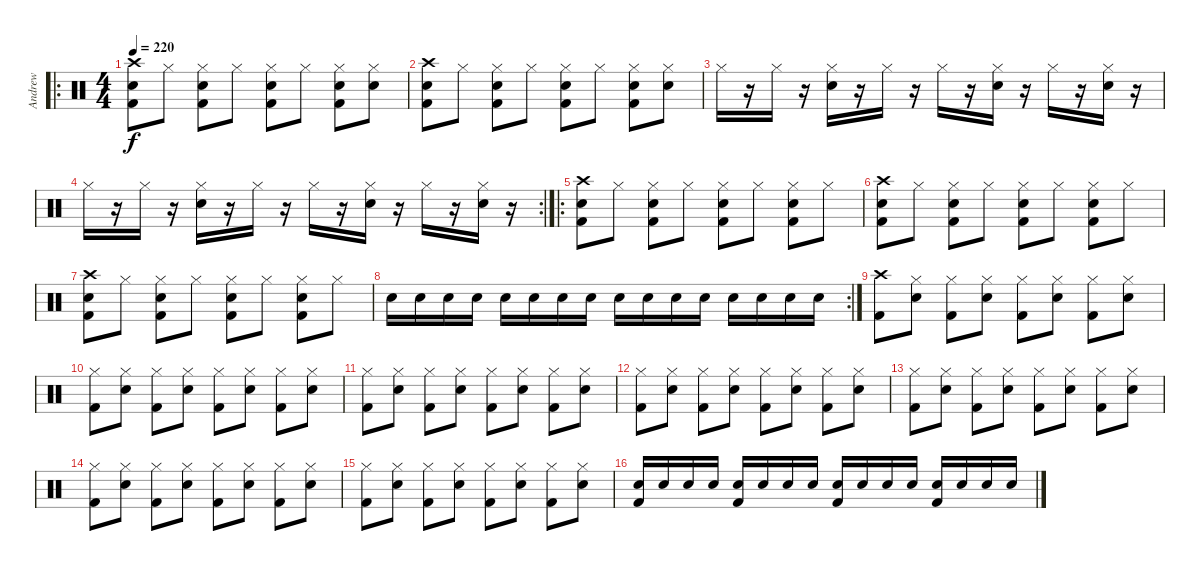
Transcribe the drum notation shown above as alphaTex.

\track ("Andrew" "Andrew") {instrument percussion}
\staff {score}
\articulation defaults
\ro
\ts (4 4)
\tempo 220
\clef neutral
\ks c
("Snare (hit) 2" "Kick (hit) 2" "Crash high (hit)").8{dy f} "Hi-Hat (closed)".8 ("Hi-Hat (closed)" "Snare (hit) 2" "Kick (hit) 2").8 "Hi-Hat (closed)".8 ("Hi-Hat (closed)" "Snare (hit) 2" "Kick (hit) 2").8 "Hi-Hat (closed)".8 ("Hi-Hat (closed)" "Snare (hit) 2" "Kick (hit) 2").8 ("Hi-Hat (closed)" "Snare (hit) 2").8 |
("Snare (hit) 2" "Kick (hit) 2" "Crash high (hit)").8 "Hi-Hat (closed)".8 ("Hi-Hat (closed)" "Snare (hit) 2" "Kick (hit) 2").8 "Hi-Hat (closed)".8 ("Hi-Hat (closed)" "Snare (hit) 2" "Kick (hit) 2").8 "Hi-Hat (closed)".8 ("Hi-Hat (closed)" "Snare (hit) 2" "Kick (hit) 2").8 ("Hi-Hat (closed)" "Snare (hit) 2").8 |
"Hi-Hat (closed)".16 r.16 "Hi-Hat (closed)".16 r.16 ("Hi-Hat (closed)" "Snare (hit) 2").16 r.16 "Hi-Hat (closed)".16 r.16 "Hi-Hat (closed)".16 r.16 ("Hi-Hat (closed)" "Snare (hit) 2").16 r.16 "Hi-Hat (closed)".16 r.16 ("Hi-Hat (closed)" "Snare (hit) 2").16 r.16 |
\rc 2 "Hi-Hat (closed)".16
r.16 "Hi-Hat (closed)".16 r.16 ("Hi-Hat (closed)" "Snare (hit) 2").16 r.16 "Hi-Hat (closed)".16 r.16 "Hi-Hat (closed)".16 r.16 ("Hi-Hat (closed)" "Snare (hit) 2").16 r.16 "Hi-Hat (closed)".16 r.16 ("Hi-Hat (closed)" "Snare (hit) 2").16 r.16 |
\ro
("Snare (hit) 2" "Kick (hit) 2" "Crash high (hit)").8 "Hi-Hat (closed)".8 ("Hi-Hat (closed)" "Snare (hit) 2" "Kick (hit) 2").8 "Hi-Hat (closed)".8 ("Hi-Hat (closed)" "Snare (hit) 2" "Kick (hit) 2").8 "Hi-Hat (closed)".8 ("Hi-Hat (closed)" "Snare (hit) 2" "Kick (hit) 2").8 "Hi-Hat (closed)".8 |
("Snare (hit) 2" "Kick (hit) 2" "Crash high (hit)").8 "Hi-Hat (closed)".8 ("Hi-Hat (closed)" "Snare (hit) 2" "Kick (hit) 2").8 "Hi-Hat (closed)".8 ("Hi-Hat (closed)" "Snare (hit) 2" "Kick (hit) 2").8 "Hi-Hat (closed)".8 ("Hi-Hat (closed)" "Snare (hit) 2" "Kick (hit) 2").8 "Hi-Hat (closed)".8 |
("Snare (hit) 2" "Kick (hit) 2" "Crash high (hit)").8 "Hi-Hat (closed)".8 ("Hi-Hat (closed)" "Snare (hit) 2" "Kick (hit) 2").8 "Hi-Hat (closed)".8 ("Hi-Hat (closed)" "Snare (hit) 2" "Kick (hit) 2").8 "Hi-Hat (closed)".8 ("Hi-Hat (closed)" "Snare (hit) 2" "Kick (hit) 2").8 "Hi-Hat (closed)".8 |
\rc 2 "Snare (hit) 2".16 "Snare (hit) 2".16 "Snare (hit) 2".16 "Snare (hit) 2".16 "Snare (hit) 2".16 "Snare (hit) 2".16 "Snare (hit) 2".16 "Snare (hit) 2".16 "Snare (hit) 2".16 "Snare (hit) 2".16 "Snare (hit) 2".16 "Snare (hit) 2".16 "Snare (hit) 2".16 "Snare (hit) 2".16 "Snare (hit) 2".16 "Snare (hit) 2".16
|
("Kick (hit) 2" "Crash high (hit)").8 ("Hi-Hat (closed)" "Snare (hit) 2").8 ("Hi-Hat (closed)" "Kick (hit) 2").8 ("Hi-Hat (closed)" "Snare (hit) 2").8 ("Hi-Hat (closed)" "Kick (hit) 2").8 ("Hi-Hat (closed)" "Snare (hit) 2").8 ("Hi-Hat (closed)" "Kick (hit) 2").8 ("Hi-Hat (closed)" "Snare (hit) 2").8 |
("Hi-Hat (closed)" "Kick (hit) 2").8 ("Hi-Hat (closed)" "Snare (hit) 2").8 ("Hi-Hat (closed)" "Kick (hit) 2").8 ("Hi-Hat (closed)" "Snare (hit) 2").8 ("Hi-Hat (closed)" "Kick (hit) 2").8 ("Hi-Hat (closed)" "Snare (hit) 2").8 ("Hi-Hat (closed)" "Kick (hit) 2").8 ("Hi-Hat (closed)" "Snare (hit) 2").8 |
("Hi-Hat (closed)" "Kick (hit) 2").8 ("Hi-Hat (closed)" "Snare (hit) 2").8 ("Hi-Hat (closed)" "Kick (hit) 2").8 ("Hi-Hat (closed)" "Snare (hit) 2").8 ("Hi-Hat (closed)" "Kick (hit) 2").8 ("Hi-Hat (closed)" "Snare (hit) 2").8 ("Hi-Hat (closed)" "Kick (hit) 2").8 ("Hi-Hat (closed)" "Snare (hit) 2").8 |
("Hi-Hat (closed)" "Kick (hit) 2").8 ("Hi-Hat (closed)" "Snare (hit) 2").8 ("Hi-Hat (closed)" "Kick (hit) 2").8 ("Hi-Hat (closed)" "Snare (hit) 2").8 ("Hi-Hat (closed)" "Kick (hit) 2").8 ("Hi-Hat (closed)" "Snare (hit) 2").8 ("Hi-Hat (closed)" "Kick (hit) 2").8 ("Hi-Hat (closed)" "Snare (hit) 2").8 |
("Hi-Hat (closed)" "Kick (hit) 2").8 ("Hi-Hat (closed)" "Snare (hit) 2").8 ("Hi-Hat (closed)" "Kick (hit) 2").8 ("Hi-Hat (closed)" "Snare (hit) 2").8 ("Hi-Hat (closed)" "Kick (hit) 2").8 ("Hi-Hat (closed)" "Snare (hit) 2").8 ("Hi-Hat (closed)" "Kick (hit) 2").8 ("Hi-Hat (closed)" "Snare (hit) 2").8 |
("Hi-Hat (closed)" "Kick (hit) 2").8 ("Hi-Hat (closed)" "Snare (hit) 2").8 ("Hi-Hat (closed)" "Kick (hit) 2").8 ("Hi-Hat (closed)" "Snare (hit) 2").8 ("Hi-Hat (closed)" "Kick (hit) 2").8 ("Hi-Hat (closed)" "Snare (hit) 2").8 ("Hi-Hat (closed)" "Kick (hit) 2").8 ("Hi-Hat (closed)" "Snare (hit) 2").8 |
("Hi-Hat (closed)" "Kick (hit) 2").8 ("Hi-Hat (closed)" "Snare (hit) 2").8 ("Hi-Hat (closed)" "Kick (hit) 2").8 ("Hi-Hat (closed)" "Snare (hit) 2").8 ("Hi-Hat (closed)" "Kick (hit) 2").8 ("Hi-Hat (closed)" "Snare (hit) 2").8 ("Hi-Hat (closed)" "Kick (hit) 2").8 ("Hi-Hat (closed)" "Snare (hit) 2").8 |
("Snare (hit) 2" "Kick (hit) 2").16 "Snare (hit) 2".16 "Snare (hit) 2".16 "Snare (hit) 2".16 ("Snare (hit) 2" "Kick (hit) 2").16 "Snare (hit) 2".16 "Snare (hit) 2".16 "Snare (hit) 2".16 ("Snare (hit) 2" "Kick (hit) 2").16 "Snare (hit) 2".16 "Snare (hit) 2".16 "Snare (hit) 2".16 ("Snare (hit) 2" "Kick (hit) 2").16 "Snare (hit) 2".16 "Snare (hit) 2".16 "Snare (hit) 2".16
